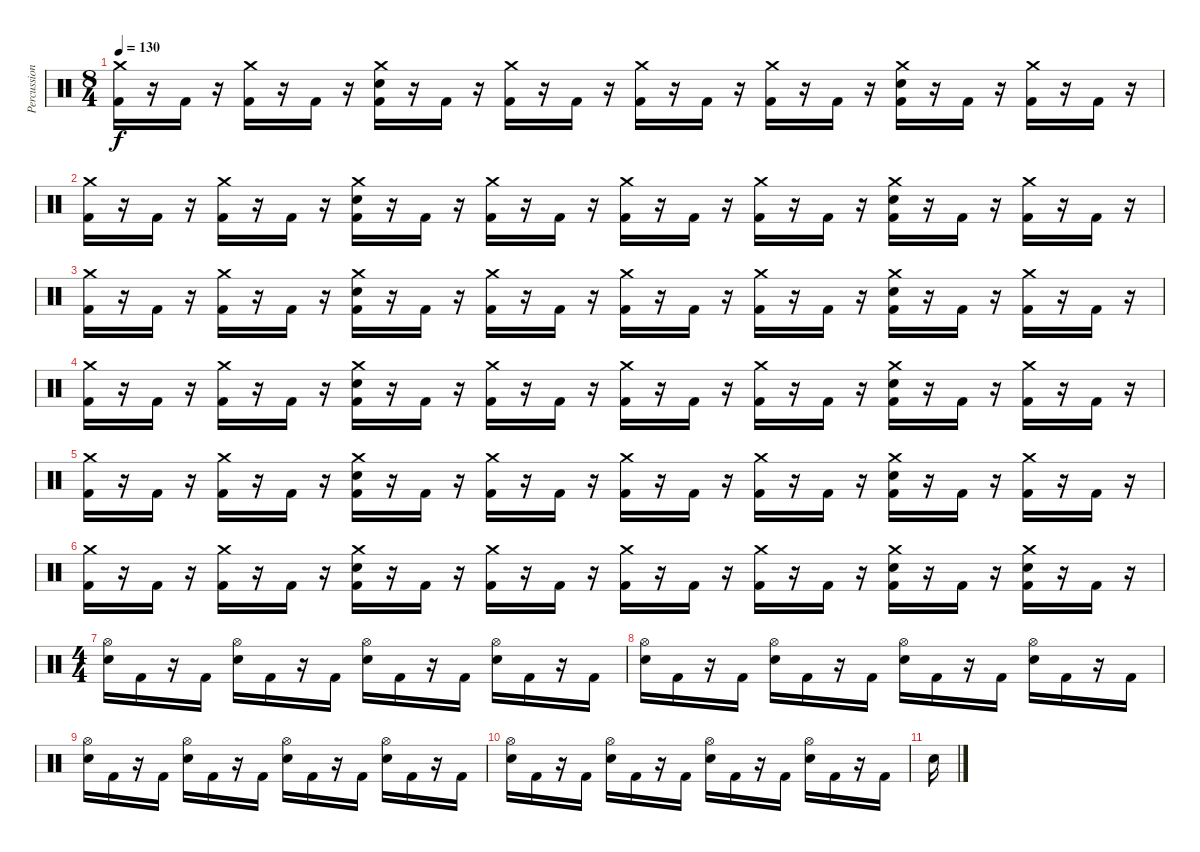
\track ("Percussions" "Percussion") {instrument percussion}
\staff {score}
\articulation defaults
\ts (8 4)
\tempo 130
\clef neutral
\ks c
("Crash medium (hit)" "Kick (hit) 2").16{dy f} r.16 "Kick (hit) 2".16 r.16 ("Crash medium (hit)" "Kick (hit) 2").16 r.16 "Kick (hit) 2".16 r.16 ("Crash medium (hit)" "Snare (hit) 2" "Kick (hit) 2").16 r.16 "Kick (hit) 2".16 r.16 ("Crash medium (hit)" "Kick (hit) 2").16 r.16 "Kick (hit) 2".16 r.16 ("Crash medium (hit)" "Kick (hit) 2").16 r.16 "Kick (hit) 2".16 r.16 ("Crash medium (hit)" "Kick (hit) 2").16 r.16 "Kick (hit) 2".16 r.16 ("Crash medium (hit)" "Snare (hit) 2" "Kick (hit) 2").16 r.16 "Kick (hit) 2".16 r.16 ("Crash medium (hit)" "Kick (hit) 2").16 r.16 "Kick (hit) 2".16 r.16 |
("Crash medium (hit)" "Kick (hit) 2").16 r.16 "Kick (hit) 2".16 r.16 ("Crash medium (hit)" "Kick (hit) 2").16 r.16 "Kick (hit) 2".16 r.16 ("Crash medium (hit)" "Snare (hit) 2" "Kick (hit) 2").16 r.16 "Kick (hit) 2".16 r.16 ("Crash medium (hit)" "Kick (hit) 2").16 r.16 "Kick (hit) 2".16 r.16 ("Crash medium (hit)" "Kick (hit) 2").16 r.16 "Kick (hit) 2".16 r.16 ("Crash medium (hit)" "Kick (hit) 2").16 r.16 "Kick (hit) 2".16 r.16 ("Crash medium (hit)" "Snare (hit) 2" "Kick (hit) 2").16 r.16 "Kick (hit) 2".16 r.16 ("Crash medium (hit)" "Kick (hit) 2").16 r.16 "Kick (hit) 2".16 r.16 |
("Crash medium (hit)" "Kick (hit) 2").16 r.16 "Kick (hit) 2".16 r.16 ("Crash medium (hit)" "Kick (hit) 2").16 r.16 "Kick (hit) 2".16 r.16 ("Crash medium (hit)" "Snare (hit) 2" "Kick (hit) 2").16 r.16 "Kick (hit) 2".16 r.16 ("Crash medium (hit)" "Kick (hit) 2").16 r.16 "Kick (hit) 2".16 r.16 ("Crash medium (hit)" "Kick (hit) 2").16 r.16 "Kick (hit) 2".16 r.16 ("Crash medium (hit)" "Kick (hit) 2").16 r.16 "Kick (hit) 2".16 r.16 ("Crash medium (hit)" "Snare (hit) 2" "Kick (hit) 2").16 r.16 "Kick (hit) 2".16 r.16 ("Crash medium (hit)" "Kick (hit) 2").16 r.16 "Kick (hit) 2".16 r.16 |
("Crash medium (hit)" "Kick (hit) 2").16 r.16 "Kick (hit) 2".16 r.16 ("Crash medium (hit)" "Kick (hit) 2").16 r.16 "Kick (hit) 2".16 r.16 ("Crash medium (hit)" "Snare (hit) 2" "Kick (hit) 2").16 r.16 "Kick (hit) 2".16 r.16 ("Crash medium (hit)" "Kick (hit) 2").16 r.16 "Kick (hit) 2".16 r.16 ("Crash medium (hit)" "Kick (hit) 2").16 r.16 "Kick (hit) 2".16 r.16 ("Crash medium (hit)" "Kick (hit) 2").16 r.16 "Kick (hit) 2".16 r.16 ("Crash medium (hit)" "Snare (hit) 2" "Kick (hit) 2").16 r.16 "Kick (hit) 2".16 r.16 ("Crash medium (hit)" "Kick (hit) 2").16 r.16 "Kick (hit) 2".16 r.16 |
("Crash medium (hit)" "Kick (hit) 2").16 r.16 "Kick (hit) 2".16 r.16 ("Crash medium (hit)" "Kick (hit) 2").16 r.16 "Kick (hit) 2".16 r.16 ("Crash medium (hit)" "Snare (hit) 2" "Kick (hit) 2").16 r.16 "Kick (hit) 2".16 r.16 ("Crash medium (hit)" "Kick (hit) 2").16 r.16 "Kick (hit) 2".16 r.16 ("Crash medium (hit)" "Kick (hit) 2").16 r.16 "Kick (hit) 2".16 r.16 ("Crash medium (hit)" "Kick (hit) 2").16 r.16 "Kick (hit) 2".16 r.16 ("Crash medium (hit)" "Snare (hit) 2" "Kick (hit) 2").16 r.16 "Kick (hit) 2".16 r.16 ("Crash medium (hit)" "Kick (hit) 2").16 r.16 "Kick (hit) 2".16 r.16 |
("Crash medium (hit)" "Kick (hit) 2").16 r.16 "Kick (hit) 2".16 r.16 ("Crash medium (hit)" "Kick (hit) 2").16 r.16 "Kick (hit) 2".16 r.16 ("Crash medium (hit)" "Snare (hit) 2" "Kick (hit) 2").16 r.16 "Kick (hit) 2".16 r.16 ("Crash medium (hit)" "Kick (hit) 2").16 r.16 "Kick (hit) 2".16 r.16 ("Crash medium (hit)" "Kick (hit) 2").16 r.16 "Kick (hit) 2".16 r.16 ("Crash medium (hit)" "Kick (hit) 2").16 r.16 "Kick (hit) 2".16 r.16 ("Crash medium (hit)" "Snare (hit) 2" "Kick (hit) 2").16 r.16 "Kick (hit) 2".16 r.16 ("Crash medium (hit)" "Snare (hit) 2" "Kick (hit) 2").16 r.16 "Kick (hit) 2".16 r.16 |
\ts (4 4)
("Hi-Hat (open)" "Snare (hit) 2").16 "Kick (hit) 2".16 r.16 "Kick (hit) 2".16 ("Hi-Hat (open)" "Snare (hit) 2").16 "Kick (hit) 2".16 r.16 "Kick (hit) 2".16 ("Hi-Hat (open)" "Snare (hit) 2").16 "Kick (hit) 2".16 r.16 "Kick (hit) 2".16 ("Hi-Hat (open)" "Snare (hit) 2").16 "Kick (hit) 2".16 r.16 "Kick (hit) 2".16 |
("Hi-Hat (open)" "Snare (hit) 2").16 "Kick (hit) 2".16 r.16 "Kick (hit) 2".16 ("Hi-Hat (open)" "Snare (hit) 2").16 "Kick (hit) 2".16 r.16 "Kick (hit) 2".16 ("Hi-Hat (open)" "Snare (hit) 2").16 "Kick (hit) 2".16 r.16 "Kick (hit) 2".16 ("Hi-Hat (open)" "Snare (hit) 2").16 "Kick (hit) 2".16 r.16 "Kick (hit) 2".16 |
("Hi-Hat (open)" "Snare (hit) 2").16 "Kick (hit) 2".16 r.16 "Kick (hit) 2".16 ("Hi-Hat (open)" "Snare (hit) 2").16 "Kick (hit) 2".16 r.16 "Kick (hit) 2".16 ("Hi-Hat (open)" "Snare (hit) 2").16 "Kick (hit) 2".16 r.16 "Kick (hit) 2".16 ("Hi-Hat (open)" "Snare (hit) 2").16 "Kick (hit) 2".16 r.16 "Kick (hit) 2".16 |
("Hi-Hat (open)" "Snare (hit) 2").16 "Kick (hit) 2".16 r.16 "Kick (hit) 2".16 ("Hi-Hat (open)" "Snare (hit) 2").16 "Kick (hit) 2".16 r.16 "Kick (hit) 2".16 ("Hi-Hat (open)" "Snare (hit) 2").16 "Kick (hit) 2".16 r.16 "Kick (hit) 2".16 ("Hi-Hat (open)" "Snare (hit) 2").16 "Kick (hit) 2".16 r.16 "Kick (hit) 2".16 |
"Snare (hit) 2".16
